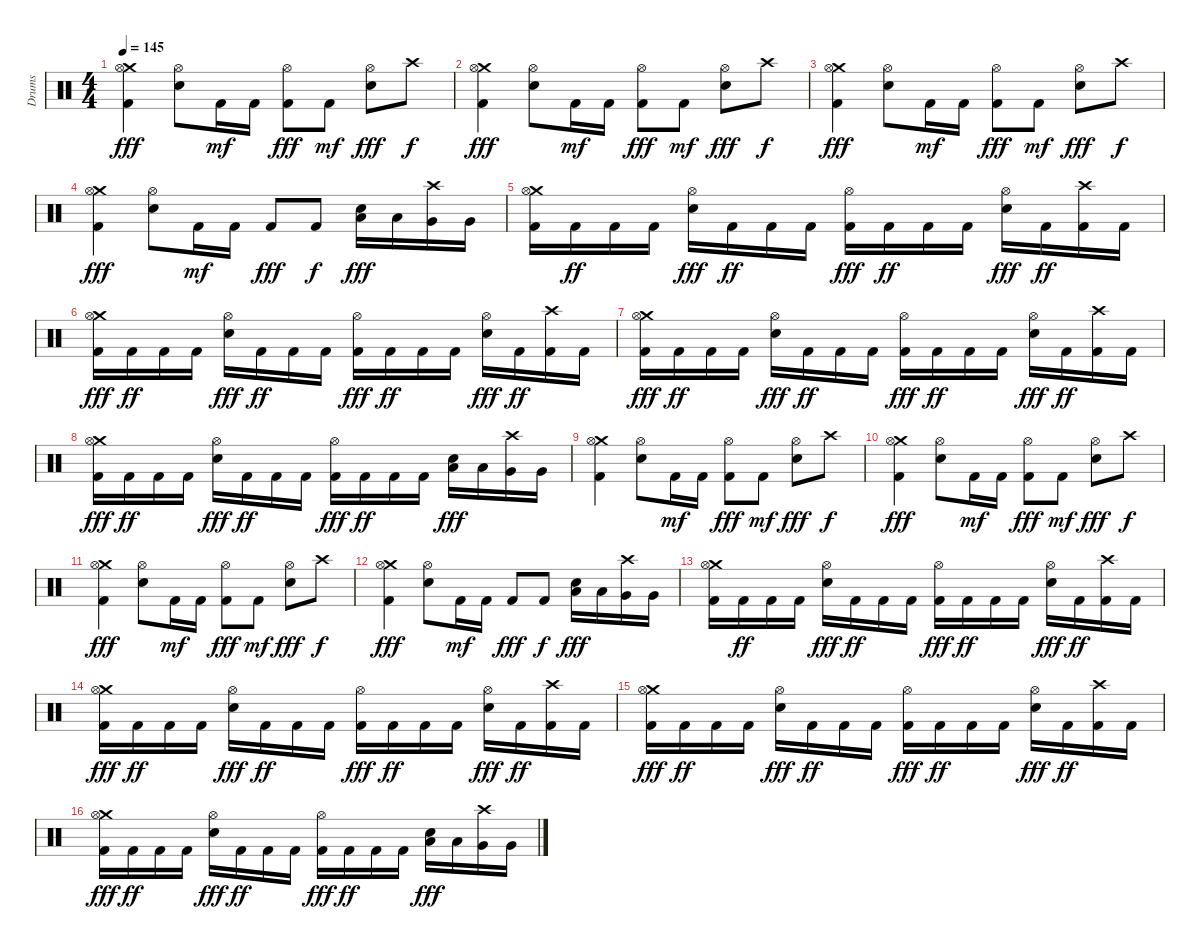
\track ("Drums" "Drums") {instrument percussion}
\staff {score}
\articulation defaults
\ts (4 4)
\tempo 145
\clef neutral
\ks c
("Crash medium (hit)" "Hi-Hat (open)" "Kick (hit) 2").4{dy fff} ("Hi-Hat (open)" "Snare (hit) 2").8 "Kick (hit) 2".16{dy mf} "Kick (hit) 2".16 ("Hi-Hat (open)" "Kick (hit) 2").8{dy fff} "Kick (hit) 2".8{dy mf} ("Hi-Hat (open)" "Snare (hit) 2").8{dy fff} "Crash high (hit)".8{dy f} |
("Crash medium (hit)" "Hi-Hat (open)" "Kick (hit) 2").4{dy fff} ("Hi-Hat (open)" "Snare (hit) 2").8 "Kick (hit) 2".16{dy mf} "Kick (hit) 2".16 ("Hi-Hat (open)" "Kick (hit) 2").8{dy fff} "Kick (hit) 2".8{dy mf} ("Hi-Hat (open)" "Snare (hit) 2").8{dy fff} "Crash high (hit)".8{dy f} |
("Crash medium (hit)" "Hi-Hat (open)" "Kick (hit) 2").4{dy fff} ("Hi-Hat (open)" "Snare (hit) 2").8 "Kick (hit) 2".16{dy mf} "Kick (hit) 2".16 ("Hi-Hat (open)" "Kick (hit) 2").8{dy fff} "Kick (hit) 2".8{dy mf} ("Hi-Hat (open)" "Snare (hit) 2").8{dy fff} "Crash high (hit)".8{dy f} |
("Crash medium (hit)" "Hi-Hat (open)" "Kick (hit) 2").4{dy fff} ("Hi-Hat (open)" "Snare (hit) 2").8 "Kick (hit) 2".16{dy mf} "Kick (hit) 2".16 "Kick (hit) 2".8{dy fff} "Kick (hit) 2".8{dy f} ("Low Tom (hit)" "Snare (hit) 2").16{dy fff} "Low Tom (hit)".16 ("Crash high (hit)" "Very Low Tom (hit)").16 "Very Low Tom (hit)".16 |
("Crash medium (hit)" "Hi-Hat (open)" "Kick (hit) 2").16 "Kick (hit) 2".16{dy ff} "Kick (hit) 2".16 "Kick (hit) 2".16 ("Hi-Hat (open)" "Snare (hit) 2").16{dy fff} "Kick (hit) 2".16{dy ff} "Kick (hit) 2".16 "Kick (hit) 2".16 ("Hi-Hat (open)" "Kick (hit) 2").16{dy fff} "Kick (hit) 2".16{dy ff} "Kick (hit) 2".16 "Kick (hit) 2".16 ("Hi-Hat (open)" "Snare (hit) 2").16{dy fff} "Kick (hit) 2".16{dy ff} ("Crash high (hit)" "Kick (hit) 2").16 "Kick (hit) 2".16 |
("Crash medium (hit)" "Hi-Hat (open)" "Kick (hit) 2").16{dy fff} "Kick (hit) 2".16{dy ff} "Kick (hit) 2".16 "Kick (hit) 2".16 ("Hi-Hat (open)" "Snare (hit) 2").16{dy fff} "Kick (hit) 2".16{dy ff} "Kick (hit) 2".16 "Kick (hit) 2".16 ("Hi-Hat (open)" "Kick (hit) 2").16{dy fff} "Kick (hit) 2".16{dy ff} "Kick (hit) 2".16 "Kick (hit) 2".16 ("Hi-Hat (open)" "Snare (hit) 2").16{dy fff} "Kick (hit) 2".16{dy ff} ("Crash high (hit)" "Kick (hit) 2").16 "Kick (hit) 2".16 |
("Crash medium (hit)" "Hi-Hat (open)" "Kick (hit) 2").16{dy fff} "Kick (hit) 2".16{dy ff} "Kick (hit) 2".16 "Kick (hit) 2".16 ("Hi-Hat (open)" "Snare (hit) 2").16{dy fff} "Kick (hit) 2".16{dy ff} "Kick (hit) 2".16 "Kick (hit) 2".16 ("Hi-Hat (open)" "Kick (hit) 2").16{dy fff} "Kick (hit) 2".16{dy ff} "Kick (hit) 2".16 "Kick (hit) 2".16 ("Hi-Hat (open)" "Snare (hit) 2").16{dy fff} "Kick (hit) 2".16{dy ff} ("Crash high (hit)" "Kick (hit) 2").16 "Kick (hit) 2".16 |
("Crash medium (hit)" "Hi-Hat (open)" "Kick (hit) 2").16{dy fff} "Kick (hit) 2".16{dy ff} "Kick (hit) 2".16 "Kick (hit) 2".16 ("Hi-Hat (open)" "Snare (hit) 2").16{dy fff} "Kick (hit) 2".16{dy ff} "Kick (hit) 2".16 "Kick (hit) 2".16 ("Hi-Hat (open)" "Kick (hit) 2").16{dy fff} "Kick (hit) 2".16{dy ff} "Kick (hit) 2".16 "Kick (hit) 2".16 ("Low Tom (hit)" "Snare (hit) 2").16{dy fff} "Low Tom (hit)".16 ("Crash high (hit)" "Very Low Tom (hit)").16 "Very Low Tom (hit)".16 |
("Crash medium (hit)" "Hi-Hat (open)" "Kick (hit) 2").4 ("Hi-Hat (open)" "Snare (hit) 2").8 "Kick (hit) 2".16{dy mf} "Kick (hit) 2".16 ("Hi-Hat (open)" "Kick (hit) 2").8{dy fff} "Kick (hit) 2".8{dy mf} ("Hi-Hat (open)" "Snare (hit) 2").8{dy fff} "Crash high (hit)".8{dy f} |
("Crash medium (hit)" "Hi-Hat (open)" "Kick (hit) 2").4{dy fff} ("Hi-Hat (open)" "Snare (hit) 2").8 "Kick (hit) 2".16{dy mf} "Kick (hit) 2".16 ("Hi-Hat (open)" "Kick (hit) 2").8{dy fff} "Kick (hit) 2".8{dy mf} ("Hi-Hat (open)" "Snare (hit) 2").8{dy fff} "Crash high (hit)".8{dy f} |
("Crash medium (hit)" "Hi-Hat (open)" "Kick (hit) 2").4{dy fff} ("Hi-Hat (open)" "Snare (hit) 2").8 "Kick (hit) 2".16{dy mf} "Kick (hit) 2".16 ("Hi-Hat (open)" "Kick (hit) 2").8{dy fff} "Kick (hit) 2".8{dy mf} ("Hi-Hat (open)" "Snare (hit) 2").8{dy fff} "Crash high (hit)".8{dy f} |
("Crash medium (hit)" "Hi-Hat (open)" "Kick (hit) 2").4{dy fff} ("Hi-Hat (open)" "Snare (hit) 2").8 "Kick (hit) 2".16{dy mf} "Kick (hit) 2".16 "Kick (hit) 2".8{dy fff} "Kick (hit) 2".8{dy f} ("Low Tom (hit)" "Snare (hit) 2").16{dy fff} "Low Tom (hit)".16 ("Crash high (hit)" "Very Low Tom (hit)").16 "Very Low Tom (hit)".16 |
("Crash medium (hit)" "Hi-Hat (open)" "Kick (hit) 2").16 "Kick (hit) 2".16{dy ff} "Kick (hit) 2".16 "Kick (hit) 2".16 ("Hi-Hat (open)" "Snare (hit) 2").16{dy fff} "Kick (hit) 2".16{dy ff} "Kick (hit) 2".16 "Kick (hit) 2".16 ("Hi-Hat (open)" "Kick (hit) 2").16{dy fff} "Kick (hit) 2".16{dy ff} "Kick (hit) 2".16 "Kick (hit) 2".16 ("Hi-Hat (open)" "Snare (hit) 2").16{dy fff} "Kick (hit) 2".16{dy ff} ("Crash high (hit)" "Kick (hit) 2").16 "Kick (hit) 2".16 |
("Crash medium (hit)" "Hi-Hat (open)" "Kick (hit) 2").16{dy fff} "Kick (hit) 2".16{dy ff} "Kick (hit) 2".16 "Kick (hit) 2".16 ("Hi-Hat (open)" "Snare (hit) 2").16{dy fff} "Kick (hit) 2".16{dy ff} "Kick (hit) 2".16 "Kick (hit) 2".16 ("Hi-Hat (open)" "Kick (hit) 2").16{dy fff} "Kick (hit) 2".16{dy ff} "Kick (hit) 2".16 "Kick (hit) 2".16 ("Hi-Hat (open)" "Snare (hit) 2").16{dy fff} "Kick (hit) 2".16{dy ff} ("Crash high (hit)" "Kick (hit) 2").16 "Kick (hit) 2".16 |
("Crash medium (hit)" "Hi-Hat (open)" "Kick (hit) 2").16{dy fff} "Kick (hit) 2".16{dy ff} "Kick (hit) 2".16 "Kick (hit) 2".16 ("Hi-Hat (open)" "Snare (hit) 2").16{dy fff} "Kick (hit) 2".16{dy ff} "Kick (hit) 2".16 "Kick (hit) 2".16 ("Hi-Hat (open)" "Kick (hit) 2").16{dy fff} "Kick (hit) 2".16{dy ff} "Kick (hit) 2".16 "Kick (hit) 2".16 ("Hi-Hat (open)" "Snare (hit) 2").16{dy fff} "Kick (hit) 2".16{dy ff} ("Crash high (hit)" "Kick (hit) 2").16 "Kick (hit) 2".16 |
("Crash medium (hit)" "Hi-Hat (open)" "Kick (hit) 2").16{dy fff} "Kick (hit) 2".16{dy ff} "Kick (hit) 2".16 "Kick (hit) 2".16 ("Hi-Hat (open)" "Snare (hit) 2").16{dy fff} "Kick (hit) 2".16{dy ff} "Kick (hit) 2".16 "Kick (hit) 2".16 ("Hi-Hat (open)" "Kick (hit) 2").16{dy fff} "Kick (hit) 2".16{dy ff} "Kick (hit) 2".16 "Kick (hit) 2".16 ("Low Tom (hit)" "Snare (hit) 2").16{dy fff} "Low Tom (hit)".16 ("Crash high (hit)" "Very Low Tom (hit)").16 "Very Low Tom (hit)".16
